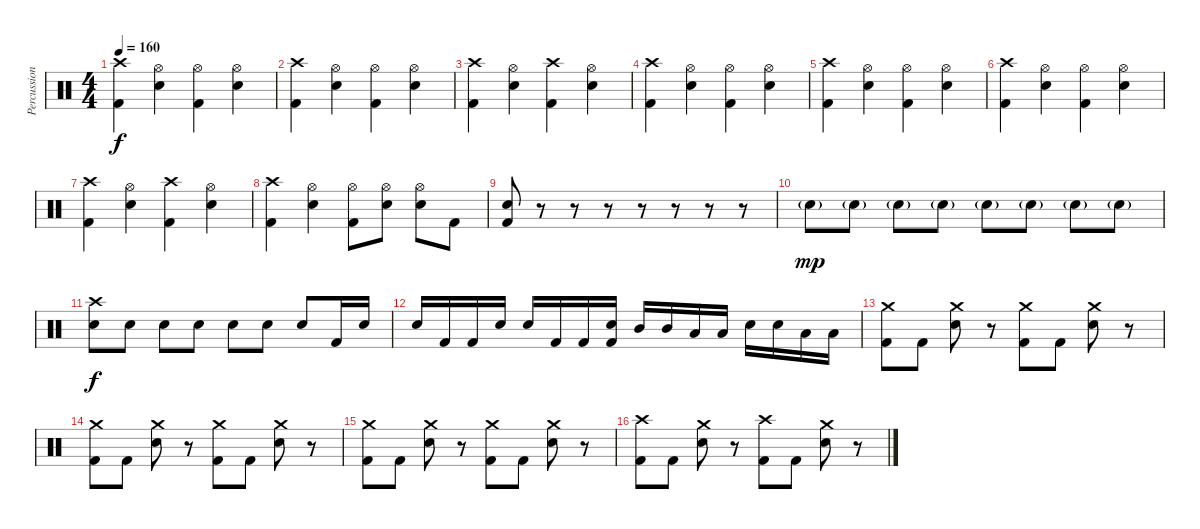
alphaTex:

\track ("Percussion" "Percussion") {instrument percussion}
\staff {score}
\articulation defaults
\ts (4 4)
\tempo 160
\clef neutral
\ks c
("Crash high (hit)" "Kick (hit) 2").4{dy f} ("Hi-Hat (open)" "Electric Snare (hit)").4 ("Hi-Hat (open)" "Kick (hit) 2").4 ("Hi-Hat (open)" "Electric Snare (hit)").4 |
("Crash high (hit)" "Kick (hit) 2").4 ("Hi-Hat (open)" "Electric Snare (hit)").4 ("Hi-Hat (open)" "Kick (hit) 2").4 ("Hi-Hat (open)" "Electric Snare (hit)").4 |
("Crash high (hit)" "Kick (hit) 2").4 ("Hi-Hat (open)" "Electric Snare (hit)").4 ("Crash high (hit)" "Kick (hit) 2").4 ("Hi-Hat (open)" "Electric Snare (hit)").4 |
("Crash high (hit)" "Kick (hit) 2").4 ("Hi-Hat (open)" "Electric Snare (hit)").4 ("Hi-Hat (open)" "Kick (hit) 2").4 ("Hi-Hat (open)" "Electric Snare (hit)").4 |
("Crash high (hit)" "Kick (hit) 2").4 ("Hi-Hat (open)" "Electric Snare (hit)").4 ("Hi-Hat (open)" "Kick (hit) 2").4 ("Hi-Hat (open)" "Electric Snare (hit)").4 |
("Crash high (hit)" "Kick (hit) 2").4 ("Hi-Hat (open)" "Electric Snare (hit)").4 ("Hi-Hat (open)" "Kick (hit) 2").4 ("Hi-Hat (open)" "Electric Snare (hit)").4 |
("Crash high (hit)" "Kick (hit) 2").4 ("Hi-Hat (open)" "Electric Snare (hit)").4 ("Crash high (hit)" "Kick (hit) 2").4 ("Hi-Hat (open)" "Electric Snare (hit)").4 |
("Crash high (hit)" "Kick (hit) 2").4 ("Hi-Hat (open)" "Electric Snare (hit)").4 ("Hi-Hat (open)" "Kick (hit) 2").8 ("Hi-Hat (open)" "Electric Snare (hit)").8 ("Hi-Hat (open)" "Electric Snare (hit)").8 "Kick (hit) 2".8 |
("Electric Snare (hit)" "Kick (hit) 2").8 r.8 r.8 r.8 r.8 r.8 r.8 r.8 |
"Electric Snare (hit)"{g}.8{dy mp} "Electric Snare (hit)"{g}.8 "Electric Snare (hit)"{g}.8 "Electric Snare (hit)"{g}.8 "Electric Snare (hit)"{g}.8 "Electric Snare (hit)"{g}.8 "Electric Snare (hit)"{g}.8 "Electric Snare (hit)"{g}.8 |
("Crash high (hit)" "Electric Snare (hit)").8{dy f} "Electric Snare (hit)".8 "Electric Snare (hit)".8 "Electric Snare (hit)".8 "Electric Snare (hit)".8 "Electric Snare (hit)".8 "Electric Snare (hit)".8 "Kick (hit) 2".16 "Electric Snare (hit)".16 |
"Electric Snare (hit)".16 "Kick (hit) 2".16 "Kick (hit) 2".16 "Electric Snare (hit)".16 "Electric Snare (hit)".16 "Kick (hit) 2".16 "Kick (hit) 2".16 ("Electric Snare (hit)" "Kick (hit) 2").16 "Mid Tom (hit)".16 "Mid Tom (hit)".16 "Low Tom (hit)".16 "Low Tom (hit)".16 "Electric Snare (hit)".16 "Electric Snare (hit)".16 "Low Tom (hit)".16 "Low Tom (hit)".16 |
("Crash medium (hit)" "Kick (hit) 2").8 "Kick (hit) 2".8 ("Crash medium (hit)" "Electric Snare (hit)").8 r.8 ("Crash medium (hit)" "Kick (hit) 2").8 "Kick (hit) 2".8 ("Crash medium (hit)" "Electric Snare (hit)").8 r.8 |
("Crash medium (hit)" "Kick (hit) 2").8 "Kick (hit) 2".8 ("Crash medium (hit)" "Electric Snare (hit)").8 r.8 ("Crash medium (hit)" "Kick (hit) 2").8 "Kick (hit) 2".8 ("Crash medium (hit)" "Electric Snare (hit)").8 r.8 |
("Crash medium (hit)" "Kick (hit) 2").8 "Kick (hit) 2".8 ("Crash medium (hit)" "Electric Snare (hit)").8 r.8 ("Crash medium (hit)" "Kick (hit) 2").8 "Kick (hit) 2".8 ("Crash medium (hit)" "Electric Snare (hit)").8 r.8 |
("Crash high (hit)" "Kick (hit) 2").8 "Kick (hit) 2".8 ("Crash medium (hit)" "Electric Snare (hit)").8 r.8 ("Crash high (hit)" "Kick (hit) 2").8 "Kick (hit) 2".8 ("Crash medium (hit)" "Electric Snare (hit)").8 r.8
